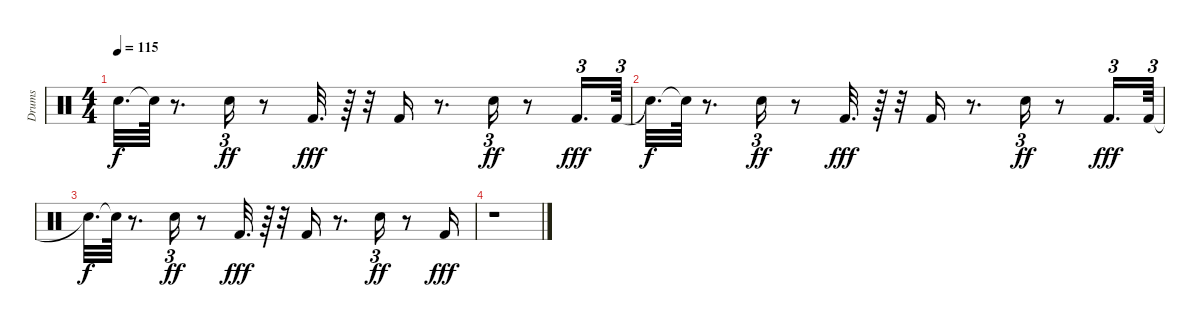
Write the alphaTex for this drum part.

\track ("Drums" "Drums") {instrument percussion}
\staff {score}
\articulation defaults
\ts (4 4)
\tempo 115
\clef neutral
\ks c "Snare (hit)"{t}.32{d dy f} "Snare (hit)"{t}.64
r.8{d} "Electric Snare (hit)".16{tu (3 2) dy ff} r.8 "Kick (hit) 2".32{d dy fff} r.64 r.32 "Kick (hit) 2".16 r.8{d} "Electric Snare (hit)".16{tu (3 2) dy ff} r.8 "Kick (hit) 2".16{d tu (3 2) dy fff} "Kick (hit) 2".64{tu (3 2)} |
"Snare (hit)"{t}.32{d dy f} "Snare (hit)"{t}.64 r.8{d} "Electric Snare (hit)".16{tu (3 2) dy ff} r.8 "Kick (hit) 2".32{d dy fff} r.64 r.32 "Kick (hit) 2".16 r.8{d} "Electric Snare (hit)".16{tu (3 2) dy ff} r.8 "Kick (hit) 2".16{d tu (3 2) dy fff} "Kick (hit) 2".64{tu (3 2)} |
"Snare (hit)"{t}.32{d dy f} "Snare (hit)"{t}.64 r.8{d} "Electric Snare (hit)".16{tu (3 2) dy ff} r.8 "Kick (hit) 2".32{d dy fff} r.64 r.32 "Kick (hit) 2".16 r.8{d} "Electric Snare (hit)".16{tu (3 2) dy ff} r.8 "Kick (hit) 2".16{dy fff} |
r.1
